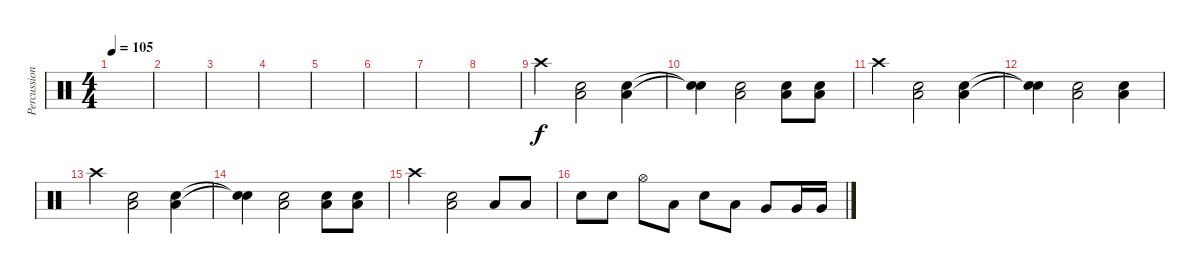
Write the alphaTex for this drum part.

\track ("Percussions" "Percussion") {instrument percussion}
\staff {score}
\articulation defaults
\ts (4 4)
\tempo 105
\clef neutral
\ks c
|
|
|
|
|
|
|
|
"Crash high (hit)".4 ("Low Tom (hit)" "Electric Snare (hit)").2 ("Low Tom (hit)" "Electric Snare (hit)").4 |
("Snare (hit)"{t} "Snare (hit)"{t}).4 ("Low Tom (hit)" "Electric Snare (hit)").2 ("Low Tom (hit)" "Electric Snare (hit)").8 ("Low Tom (hit)" "Electric Snare (hit)").8 |
"Crash high (hit)".4 ("Low Tom (hit)" "Electric Snare (hit)").2 ("Low Tom (hit)" "Electric Snare (hit)").4 |
("Snare (hit)"{t} "Snare (hit)"{t}).4 ("Low Tom (hit)" "Electric Snare (hit)").2 ("Low Tom (hit)" "Electric Snare (hit)").4 |
"Crash high (hit)".4 ("Low Tom (hit)" "Electric Snare (hit)").2 ("Low Tom (hit)" "Electric Snare (hit)").4 |
("Snare (hit)"{t} "Snare (hit)"{t}).4 ("Low Tom (hit)" "Electric Snare (hit)").2 ("Low Tom (hit)" "Electric Snare (hit)").8 ("Low Tom (hit)" "Electric Snare (hit)").8 |
"Crash high (hit)".4 ("Low Tom (hit)" "Electric Snare (hit)").2 "Low Tom (hit)".8 "Low Tom (hit)".8 |
"Electric Snare (hit)".8 "Electric Snare (hit)".8 "Hi-Hat (open)".8 "Low Tom (hit)".8 "Electric Snare (hit)".8 "Low Tom (hit)".8 "Very Low Tom (hit)".8 "Very Low Tom (hit)".16 "Very Low Tom (hit)".16
